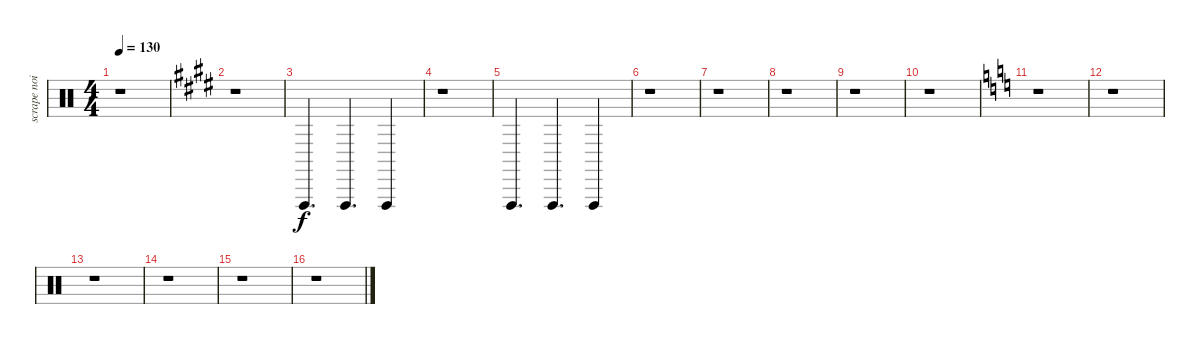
\track ("scrape noise" "scrape noi") {instrument percussion}
\staff {score}
\articulation defaults
\ts (4 4)
\tempo 130
\clef neutral
\ks c
r.1{dy f} |
\ks c#minor
r.1 |
"Vibraslap (hit)".4{d balance 0} "Vibraslap (hit)".4{d balance 16} "Vibraslap (hit)".4{balance 8} |
r.1 |
"Vibraslap (hit)".4{d balance 0} "Vibraslap (hit)".4{d balance 16} "Vibraslap (hit)".4{balance 8} |
r.1 |
r.1 |
r.1 |
r.1 |
r.1 |
\ks c
r.1 |
r.1 |
r.1 |
r.1 |
r.1 |
r.1
